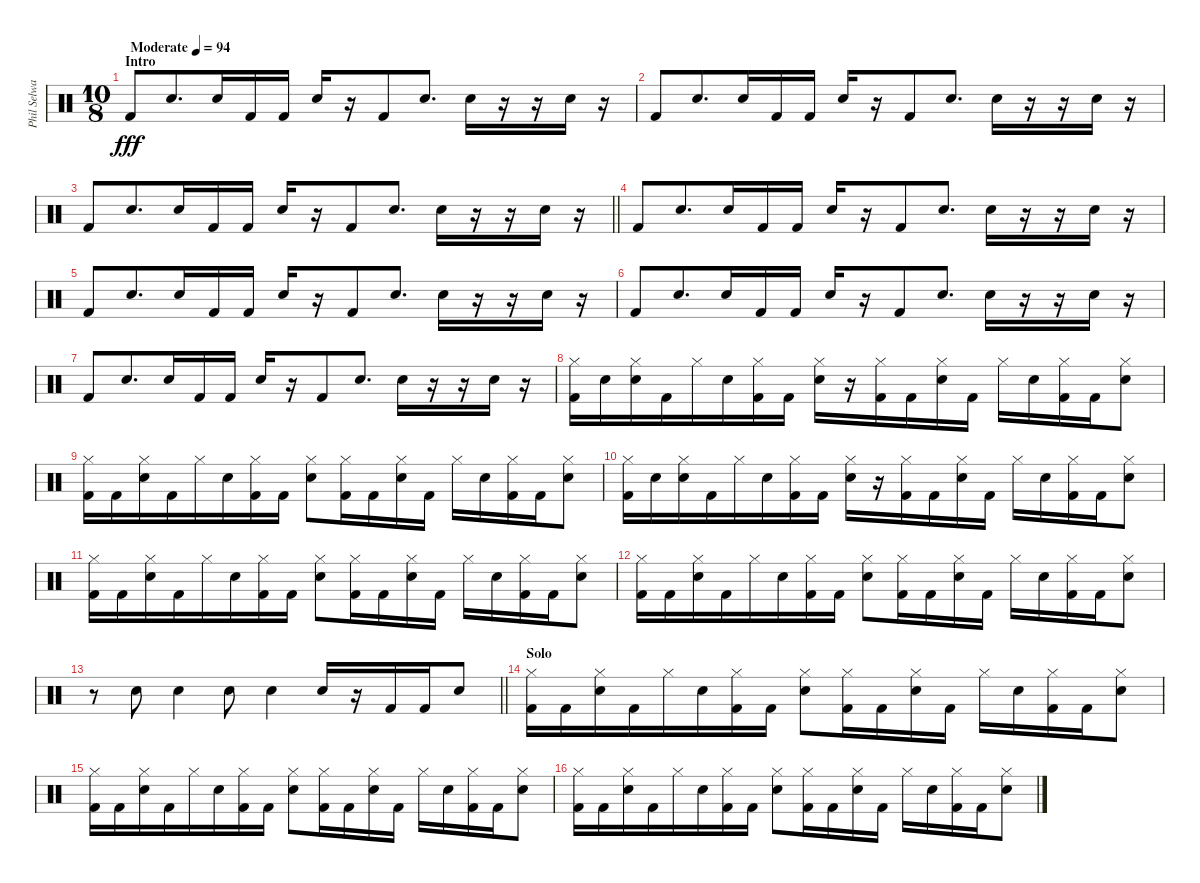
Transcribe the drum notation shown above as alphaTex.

\track ("Phil Selway" "Phil Selwa") {instrument percussion}
\staff {score}
\articulation defaults
\ts (10 8)
\section ("" "Intro")
\tempo (94 "Moderate")
\clef neutral
\ks c "Kick (hit) 2".8{dy fff} "Electric Snare (hit)".8{d} "Electric Snare (hit)".16 "Kick (hit) 2".16 "Kick (hit) 2".16 "Electric Snare (hit)".16
r.16 "Kick (hit) 2".8 "Electric Snare (hit)".8{d} "Electric Snare (hit)".16 r.16 r.16 "Electric Snare (hit)".16 r.16 |
"Kick (hit) 2".8 "Electric Snare (hit)".8{d} "Electric Snare (hit)".16 "Kick (hit) 2".16 "Kick (hit) 2".16 "Electric Snare (hit)".16 r.16 "Kick (hit) 2".8 "Electric Snare (hit)".8{d} "Electric Snare (hit)".16 r.16 r.16 "Electric Snare (hit)".16 r.16 |
\barLineRight lightlight "Kick (hit) 2".8 "Electric Snare (hit)".8{d} "Electric Snare (hit)".16 "Kick (hit) 2".16 "Kick (hit) 2".16 "Electric Snare (hit)".16
r.16 "Kick (hit) 2".8 "Electric Snare (hit)".8{d} "Electric Snare (hit)".16 r.16 r.16 "Electric Snare (hit)".16 r.16 |
\section ("" "")
"Kick (hit) 2".8 "Electric Snare (hit)".8{d} "Electric Snare (hit)".16 "Kick (hit) 2".16 "Kick (hit) 2".16 "Electric Snare (hit)".16 r.16 "Kick (hit) 2".8 "Electric Snare (hit)".8{d} "Electric Snare (hit)".16 r.16 r.16 "Electric Snare (hit)".16 r.16 |
"Kick (hit) 2".8 "Electric Snare (hit)".8{d} "Electric Snare (hit)".16 "Kick (hit) 2".16 "Kick (hit) 2".16 "Electric Snare (hit)".16 r.16 "Kick (hit) 2".8 "Electric Snare (hit)".8{d} "Electric Snare (hit)".16 r.16 r.16 "Electric Snare (hit)".16 r.16 |
"Kick (hit) 2".8 "Electric Snare (hit)".8{d} "Electric Snare (hit)".16 "Kick (hit) 2".16 "Kick (hit) 2".16 "Electric Snare (hit)".16 r.16 "Kick (hit) 2".8 "Electric Snare (hit)".8{d} "Electric Snare (hit)".16 r.16 r.16 "Electric Snare (hit)".16 r.16 |
"Kick (hit) 2".8 "Electric Snare (hit)".8{d} "Electric Snare (hit)".16 "Kick (hit) 2".16 "Kick (hit) 2".16 "Electric Snare (hit)".16 r.16 "Kick (hit) 2".8 "Electric Snare (hit)".8{d} "Electric Snare (hit)".16 r.16 r.16 "Electric Snare (hit)".16 r.16 |
("Hi-Hat (closed)" "Kick (hit) 2").16 "Electric Snare (hit)".16 ("Hi-Hat (closed)" "Electric Snare (hit)").16 "Kick (hit) 2".16 "Hi-Hat (closed)".16 "Electric Snare (hit)".16 ("Hi-Hat (closed)" "Kick (hit) 2").16 "Kick (hit) 2".16 ("Hi-Hat (closed)" "Electric Snare (hit)").16 r.16 ("Hi-Hat (closed)" "Kick (hit) 2").16 "Kick (hit) 2".16 ("Hi-Hat (closed)" "Electric Snare (hit)").16 "Kick (hit) 2".16 "Hi-Hat (closed)".16 "Electric Snare (hit)".16 ("Hi-Hat (closed)" "Kick (hit) 2").16 "Kick (hit) 2".16 ("Hi-Hat (closed)" "Electric Snare (hit)").8 |
("Hi-Hat (closed)" "Kick (hit) 2").16 "Kick (hit) 2".16 ("Hi-Hat (closed)" "Electric Snare (hit)").16 "Kick (hit) 2".16 "Hi-Hat (closed)".16 "Electric Snare (hit)".16 ("Hi-Hat (closed)" "Kick (hit) 2").16 "Kick (hit) 2".16 ("Hi-Hat (closed)" "Electric Snare (hit)").8 ("Hi-Hat (closed)" "Kick (hit) 2").16 "Kick (hit) 2".16 ("Hi-Hat (closed)" "Electric Snare (hit)").16 "Kick (hit) 2".16 "Hi-Hat (closed)".16 "Electric Snare (hit)".16 ("Hi-Hat (closed)" "Kick (hit) 2").16 "Kick (hit) 2".16 ("Hi-Hat (closed)" "Electric Snare (hit)").8 |
("Hi-Hat (closed)" "Kick (hit) 2").16 "Electric Snare (hit)".16 ("Hi-Hat (closed)" "Electric Snare (hit)").16 "Kick (hit) 2".16 "Hi-Hat (closed)".16 "Electric Snare (hit)".16 ("Hi-Hat (closed)" "Kick (hit) 2").16 "Kick (hit) 2".16 ("Hi-Hat (closed)" "Electric Snare (hit)").16 r.16 ("Hi-Hat (closed)" "Kick (hit) 2").16 "Kick (hit) 2".16 ("Hi-Hat (closed)" "Electric Snare (hit)").16 "Kick (hit) 2".16 "Hi-Hat (closed)".16 "Electric Snare (hit)".16 ("Hi-Hat (closed)" "Kick (hit) 2").16 "Kick (hit) 2".16 ("Hi-Hat (closed)" "Electric Snare (hit)").8 |
("Hi-Hat (closed)" "Kick (hit) 2").16 "Kick (hit) 2".16 ("Hi-Hat (closed)" "Electric Snare (hit)").16 "Kick (hit) 2".16 "Hi-Hat (closed)".16 "Electric Snare (hit)".16 ("Hi-Hat (closed)" "Kick (hit) 2").16 "Kick (hit) 2".16 ("Hi-Hat (closed)" "Electric Snare (hit)").8 ("Hi-Hat (closed)" "Kick (hit) 2").16 "Kick (hit) 2".16 ("Hi-Hat (closed)" "Electric Snare (hit)").16 "Kick (hit) 2".16 "Hi-Hat (closed)".16 "Electric Snare (hit)".16 ("Hi-Hat (closed)" "Kick (hit) 2").16 "Kick (hit) 2".16 ("Hi-Hat (closed)" "Electric Snare (hit)").8 |
("Hi-Hat (closed)" "Kick (hit) 2").16 "Kick (hit) 2".16 ("Hi-Hat (closed)" "Electric Snare (hit)").16 "Kick (hit) 2".16 "Hi-Hat (closed)".16 "Electric Snare (hit)".16 ("Hi-Hat (closed)" "Kick (hit) 2").16 "Kick (hit) 2".16 ("Hi-Hat (closed)" "Electric Snare (hit)").8 ("Hi-Hat (closed)" "Kick (hit) 2").16 "Kick (hit) 2".16 ("Hi-Hat (closed)" "Electric Snare (hit)").16 "Kick (hit) 2".16 "Hi-Hat (closed)".16 "Electric Snare (hit)".16 ("Hi-Hat (closed)" "Kick (hit) 2").16 "Kick (hit) 2".16 ("Hi-Hat (closed)" "Snare (hit) 2").8 |
\barLineRight lightlight
r.8 "Electric Snare (hit)".8 "Electric Snare (hit)".4 "Electric Snare (hit)".8 "Electric Snare (hit)".4 "Electric Snare (hit)".16 r.16 "Kick (hit) 2".16 "Kick (hit) 2".16 "Electric Snare (hit)".8 |
\section ("" "Solo")
("Hi-Hat (closed)" "Kick (hit) 2").16 "Kick (hit) 2".16 ("Hi-Hat (closed)" "Electric Snare (hit)").16 "Kick (hit) 2".16 "Hi-Hat (closed)".16 "Electric Snare (hit)".16 ("Hi-Hat (closed)" "Kick (hit) 2").16 "Kick (hit) 2".16 ("Hi-Hat (closed)" "Electric Snare (hit)").8 ("Hi-Hat (closed)" "Kick (hit) 2").16 "Kick (hit) 2".16 ("Hi-Hat (closed)" "Electric Snare (hit)").16 "Kick (hit) 2".16 "Hi-Hat (closed)".16 "Electric Snare (hit)".16 ("Hi-Hat (closed)" "Kick (hit) 2").16 "Kick (hit) 2".16 ("Hi-Hat (closed)" "Electric Snare (hit)").8 |
("Hi-Hat (closed)" "Kick (hit) 2").16 "Kick (hit) 2".16 ("Hi-Hat (closed)" "Electric Snare (hit)").16 "Kick (hit) 2".16 "Hi-Hat (closed)".16 "Electric Snare (hit)".16 ("Hi-Hat (closed)" "Kick (hit) 2").16 "Kick (hit) 2".16 ("Hi-Hat (closed)" "Electric Snare (hit)").8 ("Hi-Hat (closed)" "Kick (hit) 2").16 "Kick (hit) 2".16 ("Hi-Hat (closed)" "Electric Snare (hit)").16 "Kick (hit) 2".16 "Hi-Hat (closed)".16 "Electric Snare (hit)".16 ("Hi-Hat (closed)" "Kick (hit) 2").16 "Kick (hit) 2".16 ("Hi-Hat (closed)" "Electric Snare (hit)").8 |
("Hi-Hat (closed)" "Kick (hit) 2").16 "Kick (hit) 2".16 ("Hi-Hat (closed)" "Electric Snare (hit)").16 "Kick (hit) 2".16 "Hi-Hat (closed)".16 "Electric Snare (hit)".16 ("Hi-Hat (closed)" "Kick (hit) 2").16 "Kick (hit) 2".16 ("Hi-Hat (closed)" "Electric Snare (hit)").8 ("Hi-Hat (closed)" "Kick (hit) 2").16 "Kick (hit) 2".16 ("Hi-Hat (closed)" "Electric Snare (hit)").16 "Kick (hit) 2".16 "Hi-Hat (closed)".16 "Electric Snare (hit)".16 ("Hi-Hat (closed)" "Kick (hit) 2").16 "Kick (hit) 2".16 ("Hi-Hat (closed)" "Electric Snare (hit)").8
